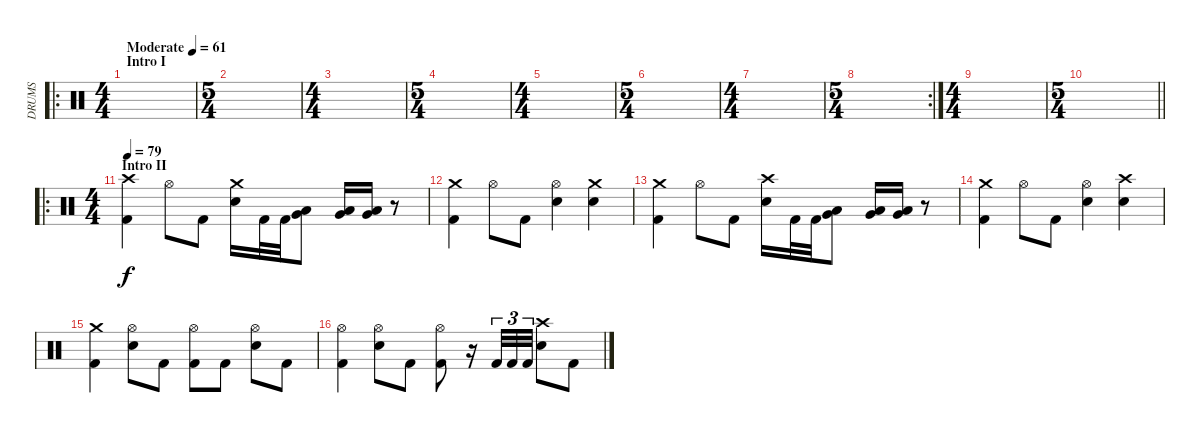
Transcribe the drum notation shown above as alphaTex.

\track ("DRUMS" "DRUMS") {instrument percussion}
\staff {score}
\articulation defaults
\ro
\ts (4 4)
\section ("" "Intro I")
\tempo (61 "Moderate")
\clef neutral
\ks c
|
\ts (5 4)
|
\ts (4 4)
|
\ts (5 4)
|
\ts (4 4)
|
\ts (5 4)
|
\ts (4 4)
|
\rc 2
\ts (5 4)
|
\ts (4 4)
|
\ts (5 4)
\barLineRight lightlight
|
\ro
\ts (4 4)
\section ("" "Intro II")
\tempo 79
("Crash high (hit)" "Kick (hit) 2").4 "Hi-Hat (open)".8 "Kick (hit) 2".8 ("Crash medium (hit)" "Snare (hit) 2").16 "Kick (hit) 2".32 "Kick (hit) 2".32 ("Very Low Tom (hit)" "Low Floor Tom (hit)").8 ("Very Low Tom (hit)" "Low Floor Tom (hit)").16 ("Very Low Tom (hit)" "Low Floor Tom (hit)").16 r.8 |
("Crash medium (hit)" "Kick (hit) 2").4 "Hi-Hat (open)".8 "Kick (hit) 2".8 ("Hi-Hat (open)" "Snare (hit) 2").4 ("Crash medium (hit)" "Snare (hit) 2").4 |
("Crash medium (hit)" "Kick (hit) 2").4 "Hi-Hat (open)".8 "Kick (hit) 2".8 ("Crash high (hit)" "Snare (hit) 2").16 "Kick (hit) 2".32 "Kick (hit) 2".32 ("Very Low Tom (hit)" "Low Floor Tom (hit)").8 ("Very Low Tom (hit)" "Low Floor Tom (hit)").16 ("Very Low Tom (hit)" "Low Floor Tom (hit)").16 r.8 |
("Crash medium (hit)" "Kick (hit) 2").4 "Hi-Hat (open)".8 "Kick (hit) 2".8 ("Hi-Hat (open)" "Snare (hit) 2").4 ("Crash high (hit)" "Snare (hit) 2").4 |
("Crash medium (hit)" "Kick (hit) 2").4 ("Hi-Hat (open)" "Snare (hit) 2").8 "Kick (hit) 2".8 ("Hi-Hat (open)" "Kick (hit) 2").8 "Kick (hit) 2".8 ("Hi-Hat (open)" "Snare (hit) 2").8 "Kick (hit) 2".8 |
("Hi-Hat (open)" "Kick (hit) 2").4 ("Hi-Hat (open)" "Snare (hit) 2").8 "Kick (hit) 2".8 ("Hi-Hat (open)" "Kick (hit) 2").8 r.16 "Kick (hit) 2".32{tu (3 2)} "Kick (hit) 2".32{tu (3 2)} "Kick (hit) 2".32{tu (3 2)} ("Crash high (hit)" "Snare (hit) 2").8 "Kick (hit) 2".8
